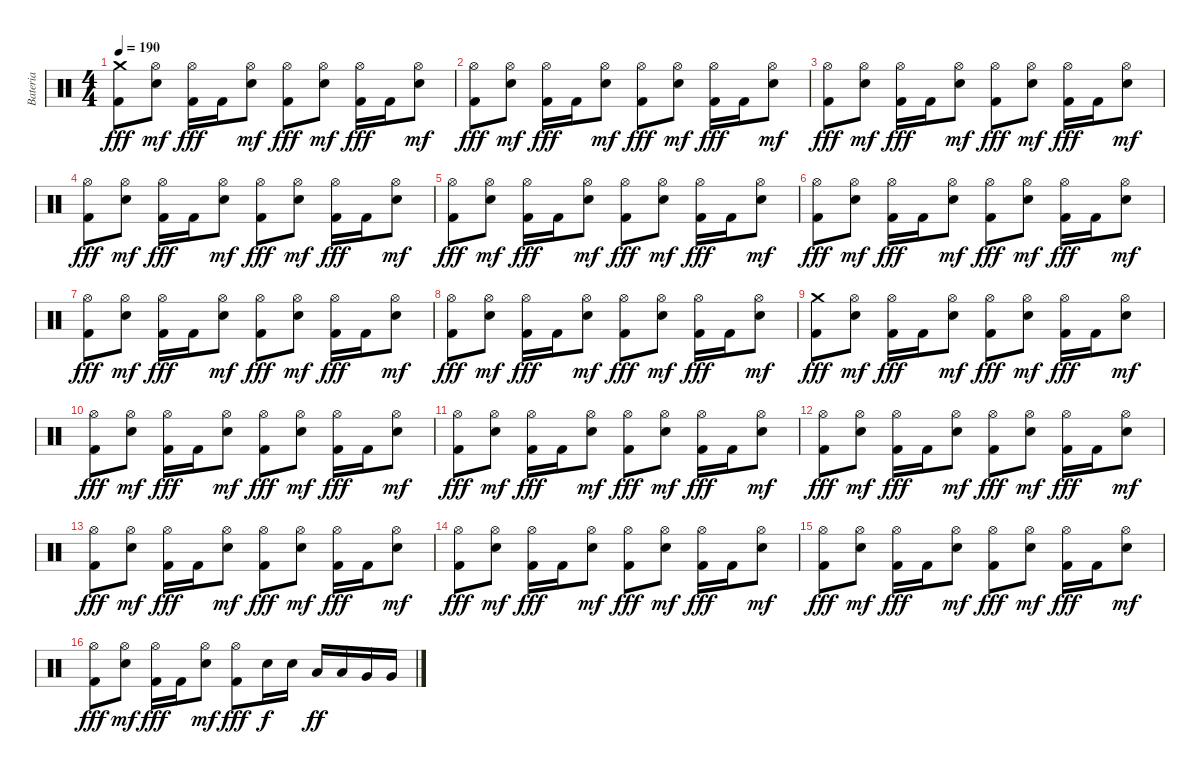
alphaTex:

\track ("Bateria" "Bateria") {instrument percussion}
\staff {score}
\articulation defaults
\ts (4 4)
\tempo 190
\clef neutral
\ks c
("Crash medium (hit)" "Kick (hit) 2").8{dy fff} ("Hi-Hat (open)" "Electric Snare (hit)").8{dy mf} ("Hi-Hat (open)" "Kick (hit) 2").16{dy fff} "Kick (hit) 2".16 ("Hi-Hat (open)" "Electric Snare (hit)").8{dy mf} ("Hi-Hat (open)" "Kick (hit) 2").8{dy fff} ("Hi-Hat (open)" "Electric Snare (hit)").8{dy mf} ("Hi-Hat (open)" "Kick (hit) 2").16{dy fff} "Kick (hit) 2".16 ("Hi-Hat (open)" "Electric Snare (hit)").8{dy mf} |
("Hi-Hat (open)" "Kick (hit) 2").8{dy fff} ("Hi-Hat (open)" "Electric Snare (hit)").8{dy mf} ("Hi-Hat (open)" "Kick (hit) 2").16{dy fff} "Kick (hit) 2".16 ("Hi-Hat (open)" "Electric Snare (hit)").8{dy mf} ("Hi-Hat (open)" "Kick (hit) 2").8{dy fff} ("Hi-Hat (open)" "Electric Snare (hit)").8{dy mf} ("Hi-Hat (open)" "Kick (hit) 2").16{dy fff} "Kick (hit) 2".16 ("Hi-Hat (open)" "Electric Snare (hit)").8{dy mf} |
("Hi-Hat (open)" "Kick (hit) 2").8{dy fff} ("Hi-Hat (open)" "Electric Snare (hit)").8{dy mf} ("Hi-Hat (open)" "Kick (hit) 2").16{dy fff} "Kick (hit) 2".16 ("Hi-Hat (open)" "Electric Snare (hit)").8{dy mf} ("Hi-Hat (open)" "Kick (hit) 2").8{dy fff} ("Hi-Hat (open)" "Electric Snare (hit)").8{dy mf} ("Hi-Hat (open)" "Kick (hit) 2").16{dy fff} "Kick (hit) 2".16 ("Hi-Hat (open)" "Electric Snare (hit)").8{dy mf} |
("Hi-Hat (open)" "Kick (hit) 2").8{dy fff} ("Hi-Hat (open)" "Electric Snare (hit)").8{dy mf} ("Hi-Hat (open)" "Kick (hit) 2").16{dy fff} "Kick (hit) 2".16 ("Hi-Hat (open)" "Electric Snare (hit)").8{dy mf} ("Hi-Hat (open)" "Kick (hit) 2").8{dy fff} ("Hi-Hat (open)" "Electric Snare (hit)").8{dy mf} ("Hi-Hat (open)" "Kick (hit) 2").16{dy fff} "Kick (hit) 2".16 ("Hi-Hat (open)" "Electric Snare (hit)").8{dy mf} |
("Hi-Hat (open)" "Kick (hit) 2").8{dy fff} ("Hi-Hat (open)" "Electric Snare (hit)").8{dy mf} ("Hi-Hat (open)" "Kick (hit) 2").16{dy fff} "Kick (hit) 2".16 ("Hi-Hat (open)" "Electric Snare (hit)").8{dy mf} ("Hi-Hat (open)" "Kick (hit) 2").8{dy fff} ("Hi-Hat (open)" "Electric Snare (hit)").8{dy mf} ("Hi-Hat (open)" "Kick (hit) 2").16{dy fff} "Kick (hit) 2".16 ("Hi-Hat (open)" "Electric Snare (hit)").8{dy mf} |
("Hi-Hat (open)" "Kick (hit) 2").8{dy fff} ("Hi-Hat (open)" "Electric Snare (hit)").8{dy mf} ("Hi-Hat (open)" "Kick (hit) 2").16{dy fff} "Kick (hit) 2".16 ("Hi-Hat (open)" "Electric Snare (hit)").8{dy mf} ("Hi-Hat (open)" "Kick (hit) 2").8{dy fff} ("Hi-Hat (open)" "Electric Snare (hit)").8{dy mf} ("Hi-Hat (open)" "Kick (hit) 2").16{dy fff} "Kick (hit) 2".16 ("Hi-Hat (open)" "Electric Snare (hit)").8{dy mf} |
("Hi-Hat (open)" "Kick (hit) 2").8{dy fff} ("Hi-Hat (open)" "Electric Snare (hit)").8{dy mf} ("Hi-Hat (open)" "Kick (hit) 2").16{dy fff} "Kick (hit) 2".16 ("Hi-Hat (open)" "Electric Snare (hit)").8{dy mf} ("Hi-Hat (open)" "Kick (hit) 2").8{dy fff} ("Hi-Hat (open)" "Electric Snare (hit)").8{dy mf} ("Hi-Hat (open)" "Kick (hit) 2").16{dy fff} "Kick (hit) 2".16 ("Hi-Hat (open)" "Electric Snare (hit)").8{dy mf} |
("Hi-Hat (open)" "Kick (hit) 2").8{dy fff} ("Hi-Hat (open)" "Electric Snare (hit)").8{dy mf} ("Hi-Hat (open)" "Kick (hit) 2").16{dy fff} "Kick (hit) 2".16 ("Hi-Hat (open)" "Electric Snare (hit)").8{dy mf} ("Hi-Hat (open)" "Kick (hit) 2").8{dy fff} ("Hi-Hat (open)" "Electric Snare (hit)").8{dy mf} ("Hi-Hat (open)" "Kick (hit) 2").16{dy fff} "Kick (hit) 2".16 ("Hi-Hat (open)" "Electric Snare (hit)").8{dy mf} |
("Crash medium (hit)" "Kick (hit) 2").8{dy fff} ("Hi-Hat (open)" "Electric Snare (hit)").8{dy mf} ("Hi-Hat (open)" "Kick (hit) 2").16{dy fff} "Kick (hit) 2".16 ("Hi-Hat (open)" "Electric Snare (hit)").8{dy mf} ("Hi-Hat (open)" "Kick (hit) 2").8{dy fff} ("Hi-Hat (open)" "Electric Snare (hit)").8{dy mf} ("Hi-Hat (open)" "Kick (hit) 2").16{dy fff} "Kick (hit) 2".16 ("Hi-Hat (open)" "Electric Snare (hit)").8{dy mf} |
("Hi-Hat (open)" "Kick (hit) 2").8{dy fff} ("Hi-Hat (open)" "Electric Snare (hit)").8{dy mf} ("Hi-Hat (open)" "Kick (hit) 2").16{dy fff} "Kick (hit) 2".16 ("Hi-Hat (open)" "Electric Snare (hit)").8{dy mf} ("Hi-Hat (open)" "Kick (hit) 2").8{dy fff} ("Hi-Hat (open)" "Electric Snare (hit)").8{dy mf} ("Hi-Hat (open)" "Kick (hit) 2").16{dy fff} "Kick (hit) 2".16 ("Hi-Hat (open)" "Electric Snare (hit)").8{dy mf} |
("Hi-Hat (open)" "Kick (hit) 2").8{dy fff} ("Hi-Hat (open)" "Electric Snare (hit)").8{dy mf} ("Hi-Hat (open)" "Kick (hit) 2").16{dy fff} "Kick (hit) 2".16 ("Hi-Hat (open)" "Electric Snare (hit)").8{dy mf} ("Hi-Hat (open)" "Kick (hit) 2").8{dy fff} ("Hi-Hat (open)" "Electric Snare (hit)").8{dy mf} ("Hi-Hat (open)" "Kick (hit) 2").16{dy fff} "Kick (hit) 2".16 ("Hi-Hat (open)" "Electric Snare (hit)").8{dy mf} |
("Hi-Hat (open)" "Kick (hit) 2").8{dy fff} ("Hi-Hat (open)" "Electric Snare (hit)").8{dy mf} ("Hi-Hat (open)" "Kick (hit) 2").16{dy fff} "Kick (hit) 2".16 ("Hi-Hat (open)" "Electric Snare (hit)").8{dy mf} ("Hi-Hat (open)" "Kick (hit) 2").8{dy fff} ("Hi-Hat (open)" "Electric Snare (hit)").8{dy mf} ("Hi-Hat (open)" "Kick (hit) 2").16{dy fff} "Kick (hit) 2".16 ("Hi-Hat (open)" "Electric Snare (hit)").8{dy mf} |
("Hi-Hat (open)" "Kick (hit) 2").8{dy fff} ("Hi-Hat (open)" "Electric Snare (hit)").8{dy mf} ("Hi-Hat (open)" "Kick (hit) 2").16{dy fff} "Kick (hit) 2".16 ("Hi-Hat (open)" "Electric Snare (hit)").8{dy mf} ("Hi-Hat (open)" "Kick (hit) 2").8{dy fff} ("Hi-Hat (open)" "Electric Snare (hit)").8{dy mf} ("Hi-Hat (open)" "Kick (hit) 2").16{dy fff} "Kick (hit) 2".16 ("Hi-Hat (open)" "Electric Snare (hit)").8{dy mf} |
("Hi-Hat (open)" "Kick (hit) 2").8{dy fff} ("Hi-Hat (open)" "Electric Snare (hit)").8{dy mf} ("Hi-Hat (open)" "Kick (hit) 2").16{dy fff} "Kick (hit) 2".16 ("Hi-Hat (open)" "Electric Snare (hit)").8{dy mf} ("Hi-Hat (open)" "Kick (hit) 2").8{dy fff} ("Hi-Hat (open)" "Electric Snare (hit)").8{dy mf} ("Hi-Hat (open)" "Kick (hit) 2").16{dy fff} "Kick (hit) 2".16 ("Hi-Hat (open)" "Electric Snare (hit)").8{dy mf} |
("Hi-Hat (open)" "Kick (hit) 2").8{dy fff} ("Hi-Hat (open)" "Electric Snare (hit)").8{dy mf} ("Hi-Hat (open)" "Kick (hit) 2").16{dy fff} "Kick (hit) 2".16 ("Hi-Hat (open)" "Electric Snare (hit)").8{dy mf} ("Hi-Hat (open)" "Kick (hit) 2").8{dy fff} ("Hi-Hat (open)" "Electric Snare (hit)").8{dy mf} ("Hi-Hat (open)" "Kick (hit) 2").16{dy fff} "Kick (hit) 2".16 ("Hi-Hat (open)" "Electric Snare (hit)").8{dy mf} |
("Hi-Hat (open)" "Kick (hit) 2").8{dy fff} ("Hi-Hat (open)" "Electric Snare (hit)").8{dy mf} ("Hi-Hat (open)" "Kick (hit) 2").16{dy fff} "Kick (hit) 2".16 ("Hi-Hat (open)" "Electric Snare (hit)").8{dy mf} ("Hi-Hat (open)" "Kick (hit) 2").8{dy fff} "Electric Snare (hit)".16{dy f} "Electric Snare (hit)".16 "Low Tom (hit)".16{dy ff} "Low Tom (hit)".16 "Very Low Tom (hit)".16 "Very Low Tom (hit)".16
